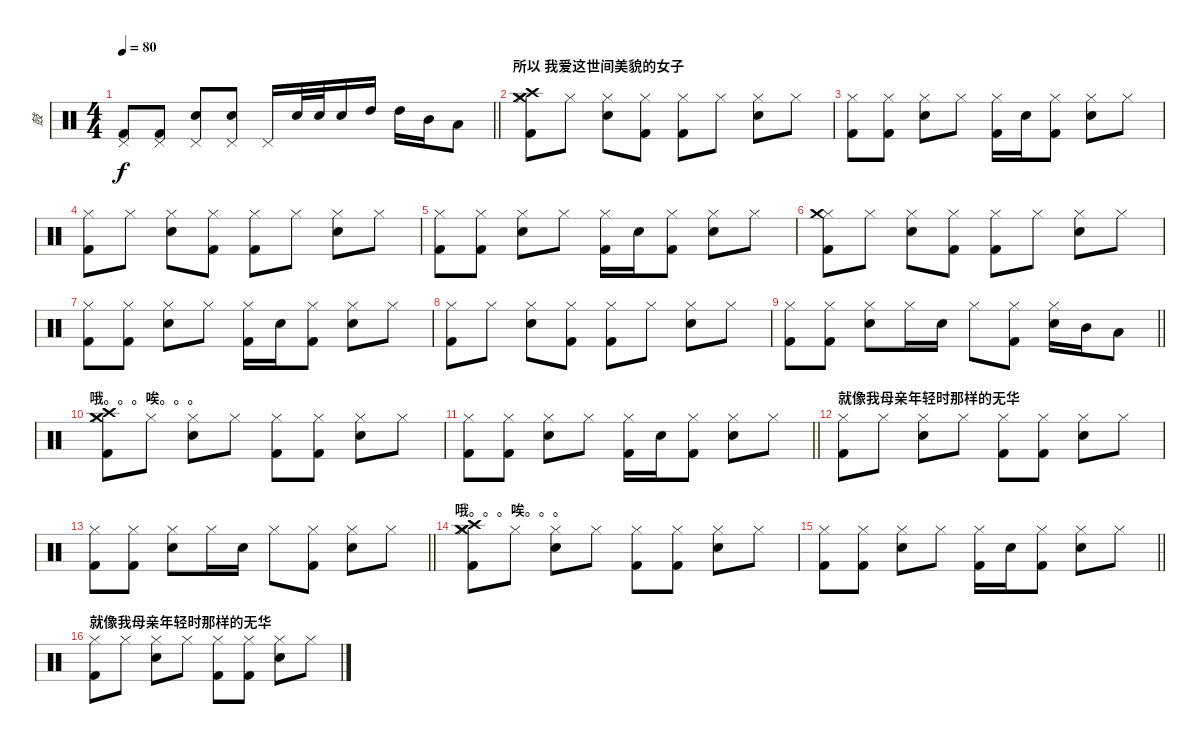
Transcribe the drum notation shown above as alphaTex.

\track ("鼓" "鼓") {instrument percussion}
\staff {score}
\articulation defaults
\ts (4 4)
\section ("" "")
\tempo 80
\clef neutral
\barLineRight lightlight
\ks c
("Pedal Hi-Hat (hit)" "Kick (hit) 2").8{dy f} ("Pedal Hi-Hat (hit)" "Kick (hit) 2").8 ("Pedal Hi-Hat (hit)" "Snare (hit) 2").8 ("Pedal Hi-Hat (hit)" "Snare (hit) 2").8 "Pedal Hi-Hat (hit)".16 "Electric Snare (hit)".32 "Electric Snare (hit)".32 "Electric Snare (hit)".16 "High Tom (hit)".16 "High Tom (hit)".16 "Mid Tom (hit)".16 "Low Tom (hit)".8 |
\section ("" "所以 我爱这世间美貌的女子")
("Hi-Hat (closed)" "Crash medium (hit)" "Crash high (hit)" "Kick (hit) 2").8 "Hi-Hat (closed)".8 ("Hi-Hat (closed)" "Snare (hit) 2").8 ("Hi-Hat (closed)" "Kick (hit) 2").8 ("Hi-Hat (closed)" "Kick (hit) 2").8 "Hi-Hat (closed)".8 ("Hi-Hat (closed)" "Snare (hit) 2").8 "Hi-Hat (closed)".8 |
("Hi-Hat (closed)" "Kick (hit) 2").8 ("Hi-Hat (closed)" "Kick (hit) 2").8 ("Hi-Hat (closed)" "Snare (hit) 2").8 "Hi-Hat (closed)".8 ("Hi-Hat (closed)" "Kick (hit) 2").16 "Snare (hit) 2".16 ("Hi-Hat (closed)" "Kick (hit) 2").8 ("Hi-Hat (closed)" "Snare (hit) 2").8 "Hi-Hat (closed)".8 |
("Hi-Hat (closed)" "Kick (hit) 2").8 "Hi-Hat (closed)".8 ("Hi-Hat (closed)" "Snare (hit) 2").8 ("Hi-Hat (closed)" "Kick (hit) 2").8 ("Hi-Hat (closed)" "Kick (hit) 2").8 "Hi-Hat (closed)".8 ("Hi-Hat (closed)" "Snare (hit) 2").8 "Hi-Hat (closed)".8 |
("Hi-Hat (closed)" "Kick (hit) 2").8 ("Hi-Hat (closed)" "Kick (hit) 2").8 ("Hi-Hat (closed)" "Snare (hit) 2").8 "Hi-Hat (closed)".8 ("Hi-Hat (closed)" "Kick (hit) 2").16 "Snare (hit) 2".16 ("Hi-Hat (closed)" "Kick (hit) 2").8 ("Hi-Hat (closed)" "Snare (hit) 2").8 "Hi-Hat (closed)".8 |
("Hi-Hat (closed)" "Crash medium (hit)" "Kick (hit) 2").8 "Hi-Hat (closed)".8 ("Hi-Hat (closed)" "Snare (hit) 2").8 ("Hi-Hat (closed)" "Kick (hit) 2").8 ("Hi-Hat (closed)" "Kick (hit) 2").8 "Hi-Hat (closed)".8 ("Hi-Hat (closed)" "Snare (hit) 2").8 "Hi-Hat (closed)".8 |
("Hi-Hat (closed)" "Kick (hit) 2").8 ("Hi-Hat (closed)" "Kick (hit) 2").8 ("Hi-Hat (closed)" "Snare (hit) 2").8 "Hi-Hat (closed)".8 ("Hi-Hat (closed)" "Kick (hit) 2").16 "Snare (hit) 2".16 ("Hi-Hat (closed)" "Kick (hit) 2").8 ("Hi-Hat (closed)" "Snare (hit) 2").8 "Hi-Hat (closed)".8 |
("Hi-Hat (closed)" "Kick (hit) 2").8 "Hi-Hat (closed)".8 ("Hi-Hat (closed)" "Snare (hit) 2").8 ("Hi-Hat (closed)" "Kick (hit) 2").8 ("Hi-Hat (closed)" "Kick (hit) 2").8 "Hi-Hat (closed)".8 ("Hi-Hat (closed)" "Snare (hit) 2").8 "Hi-Hat (closed)".8 |
\barLineRight lightlight
("Hi-Hat (closed)" "Kick (hit) 2").8 ("Hi-Hat (closed)" "Kick (hit) 2").8 ("Hi-Hat (closed)" "Electric Snare (hit)").8 "Hi-Hat (closed)".16 "Electric Snare (hit)".16 "Hi-Hat (closed)".8 ("Hi-Hat (closed)" "Kick (hit) 2").8 ("Hi-Hat (closed)" "Electric Snare (hit)").16 "Mid Tom (hit)".16 "Low Tom (hit)".8 |
\section ("" "哦。。。唉。。。")
("Hi-Hat (closed)" "Crash medium (hit)" "Crash high (hit)" "Kick (hit) 2").8 "Hi-Hat (closed)".8 ("Hi-Hat (closed)" "Electric Snare (hit)").8 "Hi-Hat (closed)".8 ("Hi-Hat (closed)" "Kick (hit) 2").8 ("Hi-Hat (closed)" "Kick (hit) 2").8 ("Hi-Hat (closed)" "Electric Snare (hit)").8 "Hi-Hat (closed)".8 |
\barLineRight lightlight
("Hi-Hat (closed)" "Kick (hit) 2").8 ("Hi-Hat (closed)" "Kick (hit) 2").8 ("Hi-Hat (closed)" "Electric Snare (hit)").8 "Hi-Hat (closed)".8 ("Hi-Hat (closed)" "Kick (hit) 2").16 "Electric Snare (hit)".16 ("Hi-Hat (closed)" "Kick (hit) 2").8 ("Hi-Hat (closed)" "Electric Snare (hit)").8 "Hi-Hat (closed)".8 |
\section ("" "就像我母亲年轻时那样的无华")
("Hi-Hat (closed)" "Kick (hit) 2").8 "Hi-Hat (closed)".8 ("Hi-Hat (closed)" "Electric Snare (hit)").8 "Hi-Hat (closed)".8 ("Hi-Hat (closed)" "Kick (hit) 2").8 ("Hi-Hat (closed)" "Kick (hit) 2").8 ("Hi-Hat (closed)" "Electric Snare (hit)").8 "Hi-Hat (closed)".8 |
\barLineRight lightlight
("Hi-Hat (closed)" "Kick (hit) 2").8 ("Hi-Hat (closed)" "Kick (hit) 2").8 ("Hi-Hat (closed)" "Electric Snare (hit)").8 "Hi-Hat (closed)".16 "Electric Snare (hit)".16 "Hi-Hat (closed)".8 ("Hi-Hat (closed)" "Kick (hit) 2").8 ("Hi-Hat (closed)" "Electric Snare (hit)").8 "Hi-Hat (closed)".8 |
\section ("" "哦。。。唉。。。")
("Hi-Hat (closed)" "Crash medium (hit)" "Crash high (hit)" "Kick (hit) 2").8 "Hi-Hat (closed)".8 ("Hi-Hat (closed)" "Electric Snare (hit)").8 "Hi-Hat (closed)".8 ("Hi-Hat (closed)" "Kick (hit) 2").8 ("Hi-Hat (closed)" "Kick (hit) 2").8 ("Hi-Hat (closed)" "Electric Snare (hit)").8 "Hi-Hat (closed)".8 |
\barLineRight lightlight
("Hi-Hat (closed)" "Kick (hit) 2").8 ("Hi-Hat (closed)" "Kick (hit) 2").8 ("Hi-Hat (closed)" "Electric Snare (hit)").8 "Hi-Hat (closed)".8 ("Hi-Hat (closed)" "Kick (hit) 2").16 "Electric Snare (hit)".16 ("Hi-Hat (closed)" "Kick (hit) 2").8 ("Hi-Hat (closed)" "Electric Snare (hit)").8 "Hi-Hat (closed)".8 |
\section ("" "就像我母亲年轻时那样的无华")
("Hi-Hat (closed)" "Kick (hit) 2").8 "Hi-Hat (closed)".8 ("Hi-Hat (closed)" "Electric Snare (hit)").8 "Hi-Hat (closed)".8 ("Hi-Hat (closed)" "Kick (hit) 2").8 ("Hi-Hat (closed)" "Kick (hit) 2").8 ("Hi-Hat (closed)" "Electric Snare (hit)").8 "Hi-Hat (closed)".8
